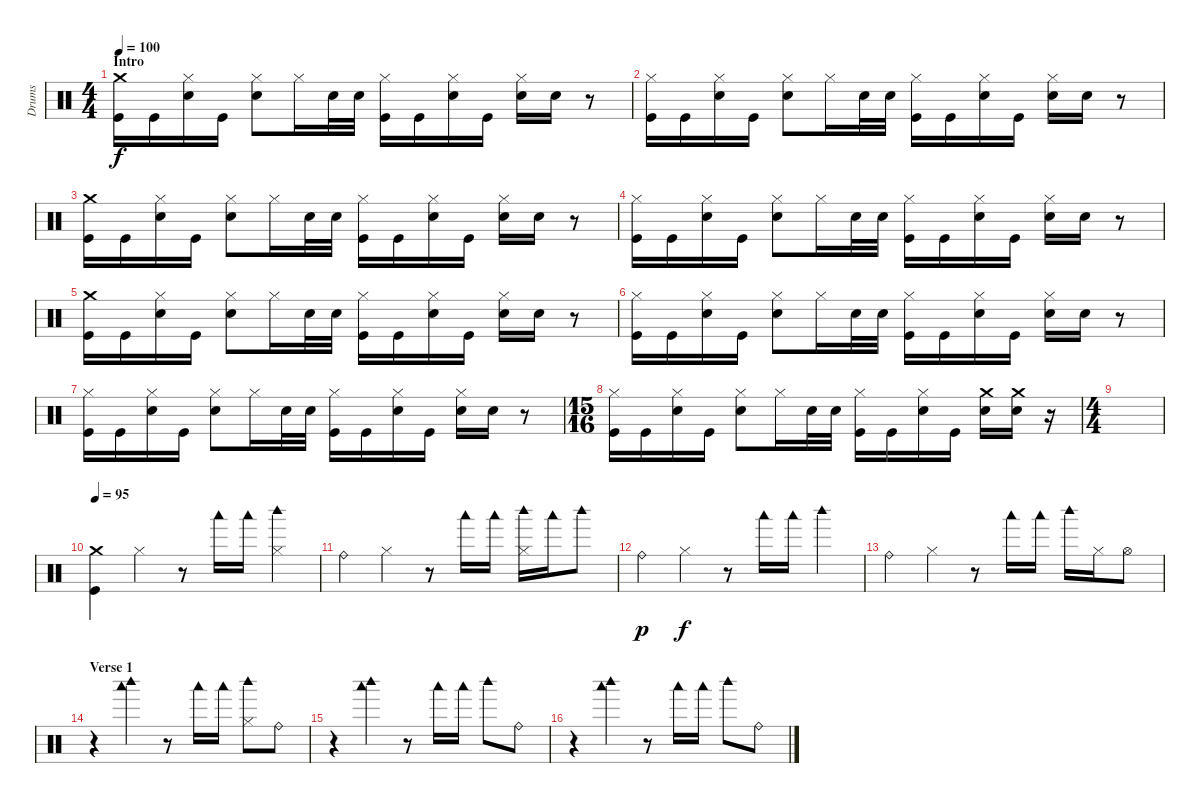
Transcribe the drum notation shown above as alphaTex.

\track ("Drums" "Drums") {instrument percussion}
\staff {score}
\articulation defaults
\ts (4 4)
\section ("" "Intro")
\tempo 100
\clef neutral
\ks c
("Crash medium (hit)" "Kick (hit)").16{dy f} "Kick (hit)".16 ("Hi-Hat (closed)" "Electric Snare (hit)").16 "Kick (hit)".16 ("Hi-Hat (closed)" "Electric Snare (hit)").8 "Hi-Hat (closed)".16 "Electric Snare (hit)".32 "Electric Snare (hit)".32 ("Hi-Hat (closed)" "Kick (hit)").16 "Kick (hit)".16 ("Hi-Hat (closed)" "Electric Snare (hit)").16 "Kick (hit)".16 ("Hi-Hat (closed)" "Electric Snare (hit)").16 "Electric Snare (hit)".16 r.8 |
("Hi-Hat (closed)" "Kick (hit)").16 "Kick (hit)".16 ("Hi-Hat (closed)" "Electric Snare (hit)").16 "Kick (hit)".16 ("Hi-Hat (closed)" "Electric Snare (hit)").8 "Hi-Hat (closed)".16 "Electric Snare (hit)".32 "Electric Snare (hit)".32 ("Hi-Hat (closed)" "Kick (hit)").16 "Kick (hit)".16 ("Hi-Hat (closed)" "Electric Snare (hit)").16 "Kick (hit)".16 ("Hi-Hat (closed)" "Electric Snare (hit)").16 "Electric Snare (hit)".16 r.8 |
("Crash medium (hit)" "Kick (hit)").16 "Kick (hit)".16 ("Hi-Hat (closed)" "Electric Snare (hit)").16 "Kick (hit)".16 ("Hi-Hat (closed)" "Electric Snare (hit)").8 "Hi-Hat (closed)".16 "Electric Snare (hit)".32 "Electric Snare (hit)".32 ("Hi-Hat (closed)" "Kick (hit)").16 "Kick (hit)".16 ("Hi-Hat (closed)" "Electric Snare (hit)").16 "Kick (hit)".16 ("Hi-Hat (closed)" "Electric Snare (hit)").16 "Electric Snare (hit)".16 r.8 |
("Hi-Hat (closed)" "Kick (hit)").16 "Kick (hit)".16 ("Hi-Hat (closed)" "Electric Snare (hit)").16 "Kick (hit)".16 ("Hi-Hat (closed)" "Electric Snare (hit)").8 "Hi-Hat (closed)".16 "Electric Snare (hit)".32 "Electric Snare (hit)".32 ("Hi-Hat (closed)" "Kick (hit)").16 "Kick (hit)".16 ("Hi-Hat (closed)" "Electric Snare (hit)").16 "Kick (hit)".16 ("Hi-Hat (closed)" "Electric Snare (hit)").16 "Electric Snare (hit)".16 r.8 |
("Crash medium (hit)" "Kick (hit)").16 "Kick (hit)".16 ("Hi-Hat (closed)" "Electric Snare (hit)").16 "Kick (hit)".16 ("Hi-Hat (closed)" "Electric Snare (hit)").8 "Hi-Hat (closed)".16 "Electric Snare (hit)".32 "Electric Snare (hit)".32 ("Hi-Hat (closed)" "Kick (hit)").16 "Kick (hit)".16 ("Hi-Hat (closed)" "Electric Snare (hit)").16 "Kick (hit)".16 ("Hi-Hat (closed)" "Electric Snare (hit)").16 "Electric Snare (hit)".16 r.8 |
("Hi-Hat (closed)" "Kick (hit)").16 "Kick (hit)".16 ("Hi-Hat (closed)" "Electric Snare (hit)").16 "Kick (hit)".16 ("Hi-Hat (closed)" "Electric Snare (hit)").8 "Hi-Hat (closed)".16 "Electric Snare (hit)".32 "Electric Snare (hit)".32 ("Hi-Hat (closed)" "Kick (hit)").16 "Kick (hit)".16 ("Hi-Hat (closed)" "Electric Snare (hit)").16 "Kick (hit)".16 ("Hi-Hat (closed)" "Electric Snare (hit)").16 "Electric Snare (hit)".16 r.8 |
("Hi-Hat (closed)" "Kick (hit)").16 "Kick (hit)".16 ("Hi-Hat (closed)" "Electric Snare (hit)").16 "Kick (hit)".16 ("Hi-Hat (closed)" "Electric Snare (hit)").8 "Hi-Hat (closed)".16 "Electric Snare (hit)".32 "Electric Snare (hit)".32 ("Hi-Hat (closed)" "Kick (hit)").16 "Kick (hit)".16 ("Hi-Hat (closed)" "Electric Snare (hit)").16 "Kick (hit)".16 ("Hi-Hat (closed)" "Electric Snare (hit)").16 "Electric Snare (hit)".16 r.8 |
\ts (15 16)
("Hi-Hat (closed)" "Kick (hit)").16 "Kick (hit)".16 ("Hi-Hat (closed)" "Electric Snare (hit)").16 "Kick (hit)".16 ("Hi-Hat (closed)" "Electric Snare (hit)").8 "Hi-Hat (closed)".16 "Electric Snare (hit)".32 "Electric Snare (hit)".32 ("Hi-Hat (closed)" "Kick (hit)").16 "Kick (hit)".16 ("Hi-Hat (closed)" "Electric Snare (hit)").16 "Kick (hit)".16 ("Crash medium (hit)" "Electric Snare (hit)").16 ("Crash medium (hit)" "Electric Snare (hit)").16 r.16 |
\ts (4 4)
|
\tempo 95
("Crash medium (hit)" "Kick (hit)").4 "Hi-Hat (closed)".4 r.8 "Woodblock low (hit)".16 "Woodblock low (hit)".16 ("Hi-Hat (closed)" "Woodblock high (hit)").4 |
"Ride (bell)".4 "Hi-Hat (closed)".4 r.8 "Woodblock low (hit)".16 "Woodblock low (hit)".16 ("Hi-Hat (closed)" "Woodblock high (hit)").16 "Woodblock low (hit)".16 "Woodblock high (hit)".8 |
"Ride (bell)".4{dy p} "Hi-Hat (closed)".4{dy f} r.8 "Woodblock low (hit)".16 "Woodblock low (hit)".16 "Woodblock high (hit)".4 |
"Ride (bell)".4 "Hi-Hat (closed)".4 r.8 "Woodblock low (hit)".16 "Woodblock low (hit)".16 "Woodblock high (hit)".16 "Hi-Hat (closed)".16 "Hi-Hat (open)".8 |
\section ("" "Verse 1")
r.4 ("Woodblock high (hit)" "Woodblock low (hit)").4 r.8 "Woodblock low (hit)".16 "Woodblock low (hit)".16 ("Hi-Hat (closed)" "Woodblock high (hit)").8 "Ride (bell)".8 |
r.4 ("Woodblock high (hit)" "Woodblock low (hit)").4 r.8 "Woodblock low (hit)".16 "Woodblock low (hit)".16 "Woodblock high (hit)".8 "Ride (bell)".8 |
r.4 ("Woodblock high (hit)" "Woodblock low (hit)").4 r.8 "Woodblock low (hit)".16 "Woodblock low (hit)".16 "Woodblock high (hit)".8 "Ride (bell)".8
